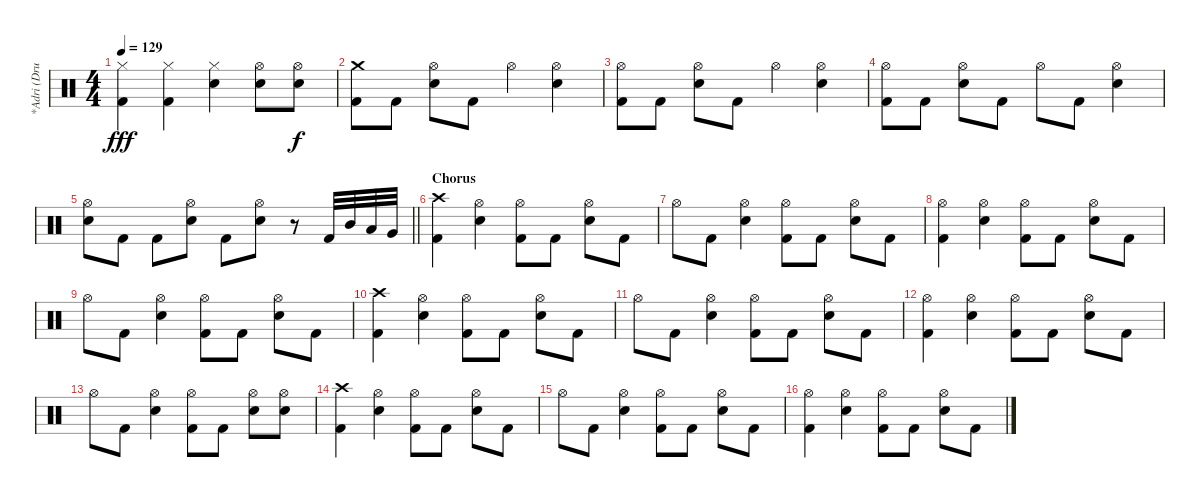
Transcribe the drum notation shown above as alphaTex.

\track ("*Adri (Drum)" "*Adri (Dru") {instrument percussion}
\staff {score}
\articulation defaults
\ts (4 4)
\tempo 129
\clef neutral
\ks c
("Hi-Hat (closed)" "Kick (hit) 2").4{dy fff} ("Hi-Hat (closed)" "Kick (hit) 2").4 ("Hi-Hat (closed)" "Snare (hit) 2").4 ("Hi-Hat (open)" "Snare (hit) 2").8 ("Hi-Hat (open)" "Snare (hit) 2").8{dy f} |
("Crash medium (hit)" "Kick (hit) 2").8 "Kick (hit) 2".8 ("Hi-Hat (open)" "Snare (hit) 2").8 "Kick (hit) 2".8 "Hi-Hat (open)".4 ("Hi-Hat (open)" "Snare (hit) 2").4 |
("Hi-Hat (open)" "Kick (hit) 2").8 "Kick (hit) 2".8 ("Hi-Hat (open)" "Snare (hit) 2").8 "Kick (hit) 2".8 "Hi-Hat (open)".4 ("Hi-Hat (open)" "Snare (hit) 2").4 |
("Hi-Hat (open)" "Kick (hit) 2").8 "Kick (hit) 2".8 ("Hi-Hat (open)" "Snare (hit) 2").8 "Kick (hit) 2".8 "Hi-Hat (open)".8 "Kick (hit) 2".8 ("Hi-Hat (open)" "Snare (hit) 2").4 |
\barLineRight lightlight
("Hi-Hat (open)" "Snare (hit) 2").8 "Kick (hit) 2".8 "Kick (hit) 2".8 ("Hi-Hat (open)" "Snare (hit) 2").8 "Kick (hit) 2".8 ("Hi-Hat (open)" "Snare (hit) 2").8 r.8 "Kick (hit) 2".32 "Mid Tom (hit)".32 "Low Tom (hit)".32 "Very Low Tom (hit)".32 |
\section ("" "Chorus")
("Crash high (hit)" "Kick (hit) 2").4 ("Hi-Hat (open)" "Snare (hit) 2").4 ("Hi-Hat (open)" "Kick (hit) 2").8 "Kick (hit) 2".8 ("Hi-Hat (open)" "Snare (hit) 2").8 "Kick (hit) 2".8 |
"Hi-Hat (open)".8 "Kick (hit) 2".8 ("Hi-Hat (open)" "Snare (hit) 2").4 ("Hi-Hat (open)" "Kick (hit) 2").8 "Kick (hit) 2".8 ("Hi-Hat (open)" "Snare (hit) 2").8 "Kick (hit) 2".8 |
("Hi-Hat (open)" "Kick (hit) 2").4 ("Hi-Hat (open)" "Snare (hit) 2").4 ("Hi-Hat (open)" "Kick (hit) 2").8 "Kick (hit) 2".8 ("Hi-Hat (open)" "Snare (hit) 2").8 "Kick (hit) 2".8 |
"Hi-Hat (open)".8 "Kick (hit) 2".8 ("Hi-Hat (open)" "Snare (hit) 2").4 ("Hi-Hat (open)" "Kick (hit) 2").8 "Kick (hit) 2".8 ("Hi-Hat (open)" "Snare (hit) 2").8 "Kick (hit) 2".8 |
("Crash high (hit)" "Kick (hit) 2").4 ("Hi-Hat (open)" "Snare (hit) 2").4 ("Hi-Hat (open)" "Kick (hit) 2").8 "Kick (hit) 2".8 ("Hi-Hat (open)" "Snare (hit) 2").8 "Kick (hit) 2".8 |
"Hi-Hat (open)".8 "Kick (hit) 2".8 ("Hi-Hat (open)" "Snare (hit) 2").4 ("Hi-Hat (open)" "Kick (hit) 2").8 "Kick (hit) 2".8 ("Hi-Hat (open)" "Snare (hit) 2").8 "Kick (hit) 2".8 |
("Hi-Hat (open)" "Kick (hit) 2").4 ("Hi-Hat (open)" "Snare (hit) 2").4 ("Hi-Hat (open)" "Kick (hit) 2").8 "Kick (hit) 2".8 ("Hi-Hat (open)" "Snare (hit) 2").8 "Kick (hit) 2".8 |
"Hi-Hat (open)".8 "Kick (hit) 2".8 ("Hi-Hat (open)" "Snare (hit) 2").4 ("Hi-Hat (open)" "Kick (hit) 2").8 "Kick (hit) 2".8 ("Hi-Hat (open)" "Snare (hit) 2").8 ("Hi-Hat (open)" "Snare (hit) 2").8 |
("Crash high (hit)" "Kick (hit) 2").4 ("Hi-Hat (open)" "Snare (hit) 2").4 ("Hi-Hat (open)" "Kick (hit) 2").8 "Kick (hit) 2".8 ("Hi-Hat (open)" "Snare (hit) 2").8 "Kick (hit) 2".8 |
"Hi-Hat (open)".8 "Kick (hit) 2".8 ("Hi-Hat (open)" "Snare (hit) 2").4 ("Hi-Hat (open)" "Kick (hit) 2").8 "Kick (hit) 2".8 ("Hi-Hat (open)" "Snare (hit) 2").8 "Kick (hit) 2".8 |
("Hi-Hat (open)" "Kick (hit) 2").4 ("Hi-Hat (open)" "Snare (hit) 2").4 ("Hi-Hat (open)" "Kick (hit) 2").8 "Kick (hit) 2".8 ("Hi-Hat (open)" "Snare (hit) 2").8 "Kick (hit) 2".8
